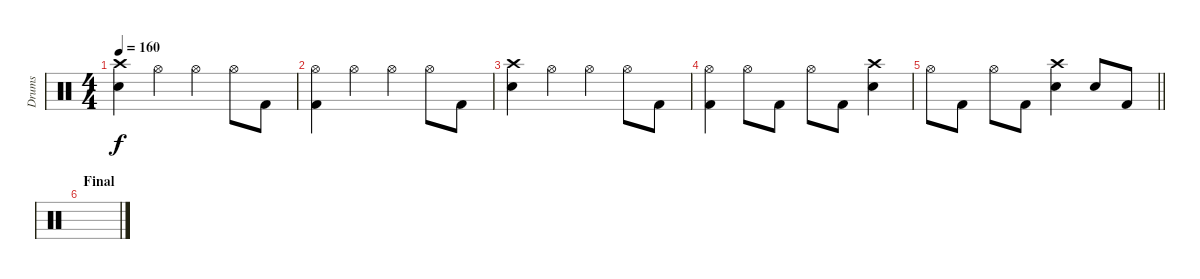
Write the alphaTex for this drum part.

\track ("Drums" "Drums") {instrument percussion}
\staff {score}
\articulation defaults
\ts (4 4)
\tempo 160
\clef neutral
\ks c
("Electric Snare (hit)" "Crash high (hit)").4{dy f} "Hi-Hat (open)".4 "Hi-Hat (open)".4 "Hi-Hat (open)".8 "Kick (hit) 2".8 |
("Hi-Hat (open)" "Kick (hit) 2").4 "Hi-Hat (open)".4 "Hi-Hat (open)".4 "Hi-Hat (open)".8 "Kick (hit) 2".8 |
("Electric Snare (hit)" "Crash high (hit)").4 "Hi-Hat (open)".4 "Hi-Hat (open)".4 "Hi-Hat (open)".8 "Kick (hit) 2".8 |
("Hi-Hat (open)" "Kick (hit) 2").4 "Hi-Hat (open)".8 "Kick (hit) 2".8 "Hi-Hat (open)".8 "Kick (hit) 2".8 ("Electric Snare (hit)" "Crash high (hit)").4 |
\barLineRight lightlight "Hi-Hat (open)".8 "Kick (hit) 2".8 "Hi-Hat (open)".8 "Kick (hit) 2".8
("Electric Snare (hit)" "Crash high (hit)").4 "Electric Snare (hit)".8 "Kick (hit) 2".8 |
\section ("" "Final")
